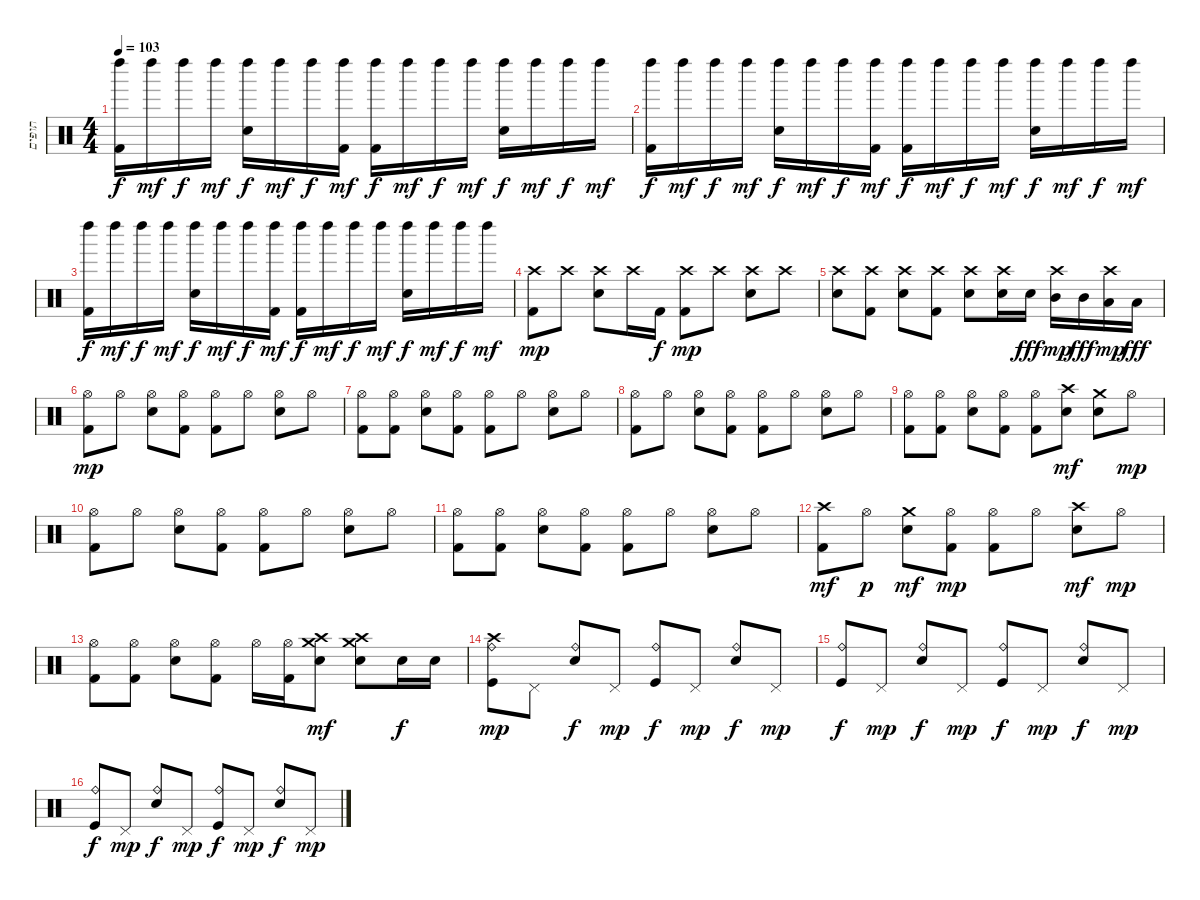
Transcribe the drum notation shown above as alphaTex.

\track ("תופים" "תופים") {instrument percussion}
\staff {score}
\articulation defaults
\ts (4 4)
\tempo 103
\clef neutral
\ks c
("Kick (hit) 2" "Left Maraca (hit)").16{dy f} "Left Maraca (hit)".16{dy mf} "Left Maraca (hit)".16{dy f} "Left Maraca (hit)".16{dy mf} ("Electric Snare (hit)" "Left Maraca (hit)").16{dy f} "Left Maraca (hit)".16{dy mf} "Left Maraca (hit)".16{dy f} ("Kick (hit) 2" "Left Maraca (hit)").16{dy mf} ("Kick (hit) 2" "Left Maraca (hit)").16{dy f} "Left Maraca (hit)".16{dy mf} "Left Maraca (hit)".16{dy f} "Left Maraca (hit)".16{dy mf} ("Electric Snare (hit)" "Left Maraca (hit)").16{dy f} "Left Maraca (hit)".16{dy mf} "Left Maraca (hit)".16{dy f} "Left Maraca (hit)".16{dy mf} |
("Kick (hit) 2" "Left Maraca (hit)").16{dy f} "Left Maraca (hit)".16{dy mf} "Left Maraca (hit)".16{dy f} "Left Maraca (hit)".16{dy mf} ("Electric Snare (hit)" "Left Maraca (hit)").16{dy f} "Left Maraca (hit)".16{dy mf} "Left Maraca (hit)".16{dy f} ("Kick (hit) 2" "Left Maraca (hit)").16{dy mf} ("Kick (hit) 2" "Left Maraca (hit)").16{dy f} "Left Maraca (hit)".16{dy mf} "Left Maraca (hit)".16{dy f} "Left Maraca (hit)".16{dy mf} ("Electric Snare (hit)" "Left Maraca (hit)").16{dy f} "Left Maraca (hit)".16{dy mf} "Left Maraca (hit)".16{dy f} "Left Maraca (hit)".16{dy mf} |
("Kick (hit) 2" "Left Maraca (hit)").16{dy f} "Left Maraca (hit)".16{dy mf} "Left Maraca (hit)".16{dy f} "Left Maraca (hit)".16{dy mf} ("Electric Snare (hit)" "Left Maraca (hit)").16{dy f} "Left Maraca (hit)".16{dy mf} "Left Maraca (hit)".16{dy f} ("Kick (hit) 2" "Left Maraca (hit)").16{dy mf} ("Kick (hit) 2" "Left Maraca (hit)").16{dy f} "Left Maraca (hit)".16{dy mf} "Left Maraca (hit)".16{dy f} "Left Maraca (hit)".16{dy mf} ("Electric Snare (hit)" "Left Maraca (hit)").16{dy f} "Left Maraca (hit)".16{dy mf} "Left Maraca (hit)".16{dy f} "Left Maraca (hit)".16{dy mf} |
("Kick (hit) 2" "Crash high (hit)").8{dy mp} "Crash high (hit)".8 ("Electric Snare (hit)" "Crash high (hit)").8 "Crash high (hit)".16 "Kick (hit) 2".16{dy f} ("Kick (hit) 2" "Crash high (hit)").8{dy mp} "Crash high (hit)".8 ("Electric Snare (hit)" "Crash high (hit)").8 "Crash high (hit)".8 |
("Electric Snare (hit)" "Crash high (hit)").8 ("Kick (hit) 2" "Crash high (hit)").8 ("Electric Snare (hit)" "Crash high (hit)").8 ("Kick (hit) 2" "Crash high (hit)").8 ("Electric Snare (hit)" "Crash high (hit)").8 ("Electric Snare (hit)" "Crash high (hit)").16 "Electric Snare (hit)".16{dy fff} ("Mid Tom (hit)" "Crash high (hit)").16{dy mp} "Mid Tom (hit)".16{dy fff} ("Low Tom (hit)" "Crash high (hit)").16{dy mp} "Low Tom (hit)".16{dy fff} |
("Kick (hit) 2" "Hi-Hat (open)").8{dy mp} "Hi-Hat (open)".8 ("Electric Snare (hit)" "Hi-Hat (open)").8 ("Kick (hit) 2" "Hi-Hat (open)").8 ("Kick (hit) 2" "Hi-Hat (open)").8 "Hi-Hat (open)".8 ("Electric Snare (hit)" "Hi-Hat (open)").8 "Hi-Hat (open)".8 |
("Kick (hit) 2" "Hi-Hat (open)").8 ("Kick (hit) 2" "Hi-Hat (open)").8 ("Electric Snare (hit)" "Hi-Hat (open)").8 ("Kick (hit) 2" "Hi-Hat (open)").8 ("Kick (hit) 2" "Hi-Hat (open)").8 "Hi-Hat (open)".8 ("Electric Snare (hit)" "Hi-Hat (open)").8 "Hi-Hat (open)".8 |
("Kick (hit) 2" "Hi-Hat (open)").8 "Hi-Hat (open)".8 ("Electric Snare (hit)" "Hi-Hat (open)").8 ("Kick (hit) 2" "Hi-Hat (open)").8 ("Kick (hit) 2" "Hi-Hat (open)").8 "Hi-Hat (open)".8 ("Electric Snare (hit)" "Hi-Hat (open)").8 "Hi-Hat (open)".8 |
("Kick (hit) 2" "Hi-Hat (open)").8 ("Kick (hit) 2" "Hi-Hat (open)").8 ("Electric Snare (hit)" "Hi-Hat (open)").8 ("Kick (hit) 2" "Hi-Hat (open)").8 ("Kick (hit) 2" "Hi-Hat (open)").8 ("Electric Snare (hit)" "Crash high (hit)").8{dy mf} ("Electric Snare (hit)" "Crash medium (hit)").8 "Hi-Hat (open)".8{dy mp} |
("Kick (hit) 2" "Hi-Hat (open)").8 "Hi-Hat (open)".8 ("Electric Snare (hit)" "Hi-Hat (open)").8 ("Kick (hit) 2" "Hi-Hat (open)").8 ("Kick (hit) 2" "Hi-Hat (open)").8 "Hi-Hat (open)".8 ("Electric Snare (hit)" "Hi-Hat (open)").8 "Hi-Hat (open)".8 |
("Kick (hit) 2" "Hi-Hat (open)").8 ("Kick (hit) 2" "Hi-Hat (open)").8 ("Electric Snare (hit)" "Hi-Hat (open)").8 ("Kick (hit) 2" "Hi-Hat (open)").8 ("Kick (hit) 2" "Hi-Hat (open)").8 "Hi-Hat (open)".8 ("Electric Snare (hit)" "Hi-Hat (open)").8 "Hi-Hat (open)".8 |
("Kick (hit) 2" "Crash high (hit)").8{dy mf} "Hi-Hat (open)".8{dy p} ("Electric Snare (hit)" "Crash medium (hit)").8{dy mf} ("Kick (hit) 2" "Hi-Hat (open)").8{dy mp} ("Kick (hit) 2" "Hi-Hat (open)").8 "Hi-Hat (open)".8 ("Electric Snare (hit)" "Crash high (hit)").8{dy mf} "Hi-Hat (open)".8{dy mp} |
("Kick (hit) 2" "Hi-Hat (open)").8 ("Kick (hit) 2" "Hi-Hat (open)").8 ("Electric Snare (hit)" "Hi-Hat (open)").8 ("Kick (hit) 2" "Hi-Hat (open)").8 "Hi-Hat (open)".16 ("Kick (hit) 2" "Hi-Hat (open)").16 ("Electric Snare (hit)" "Crash medium (hit)" "Crash high (hit)").8{dy mf} ("Electric Snare (hit)" "Crash medium (hit)" "Crash high (hit)").8 "Electric Snare (hit)".16{dy f} "Electric Snare (hit)".16 |
("Crash high (hit)" "Kick (hit)" "Ride (bell)").8{dy mp} "Pedal Hi-Hat (hit)".8 ("Electric Snare (hit)" "Ride (bell)").8{dy f} "Pedal Hi-Hat (hit)".8{dy mp} ("Kick (hit)" "Ride (bell)").8{dy f} "Pedal Hi-Hat (hit)".8{dy mp} ("Electric Snare (hit)" "Ride (bell)").8{dy f} "Pedal Hi-Hat (hit)".8{dy mp} |
("Kick (hit)" "Ride (bell)").8{dy f} "Pedal Hi-Hat (hit)".8{dy mp} ("Electric Snare (hit)" "Ride (bell)").8{dy f} "Pedal Hi-Hat (hit)".8{dy mp} ("Kick (hit)" "Ride (bell)").8{dy f} "Pedal Hi-Hat (hit)".8{dy mp} ("Electric Snare (hit)" "Ride (bell)").8{dy f} "Pedal Hi-Hat (hit)".8{dy mp} |
("Kick (hit)" "Ride (bell)").8{dy f} "Pedal Hi-Hat (hit)".8{dy mp} ("Electric Snare (hit)" "Ride (bell)").8{dy f} "Pedal Hi-Hat (hit)".8{dy mp} ("Kick (hit)" "Ride (bell)").8{dy f} "Pedal Hi-Hat (hit)".8{dy mp} ("Electric Snare (hit)" "Ride (bell)").8{dy f} "Pedal Hi-Hat (hit)".8{dy mp}
